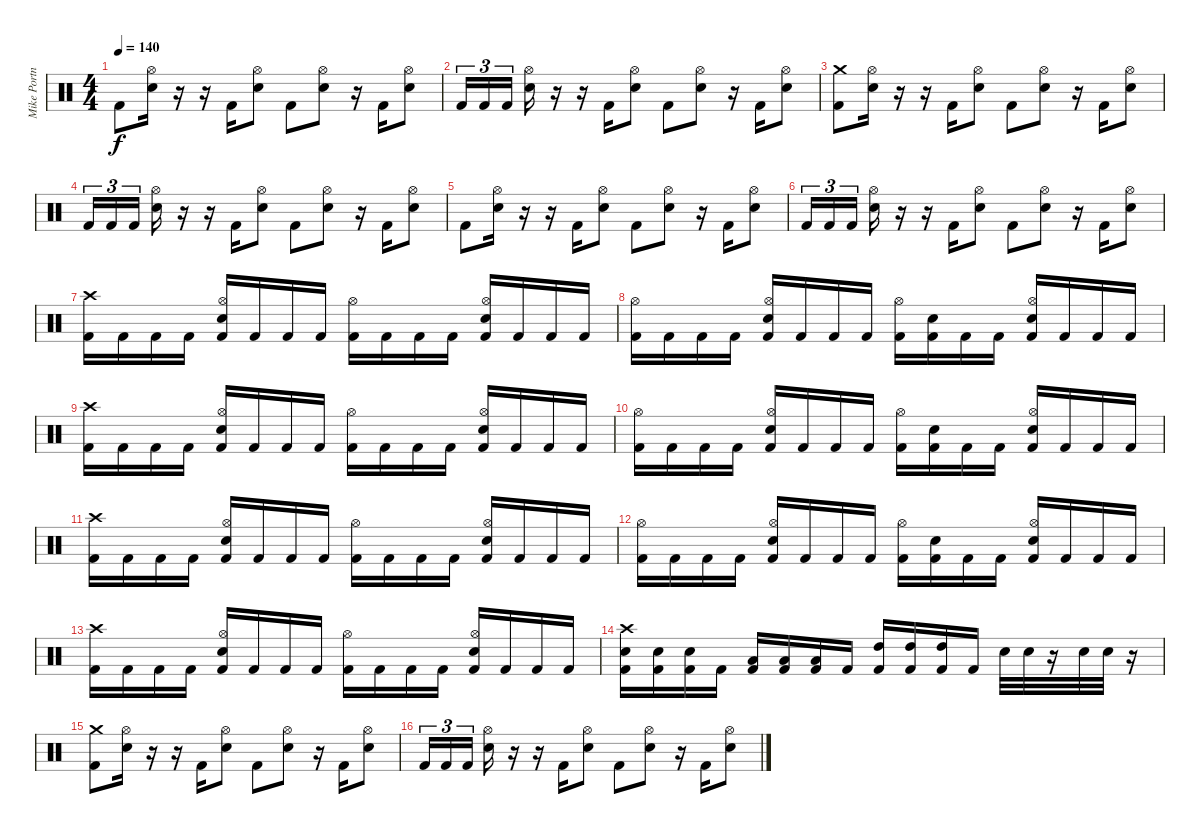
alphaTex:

\track ("Mike Portnoy" "Mike Portn") {instrument percussion}
\staff {score}
\articulation defaults
\ts (4 4)
\tempo 140
\clef neutral
\ks c "Kick (hit) 2".8{dy f}
("Hi-Hat (open)" "Snare (hit) 2").16 r.16 r.16 "Kick (hit) 2".16 ("Hi-Hat (open)" "Snare (hit) 2").8 "Kick (hit) 2".8 ("Hi-Hat (open)" "Snare (hit) 2").8 r.16 "Kick (hit) 2".16 ("Hi-Hat (open)" "Snare (hit) 2").8 |
"Kick (hit) 2".16{tu (3 2)} "Kick (hit) 2".16{tu (3 2)} "Kick (hit) 2".16{tu (3 2)} ("Hi-Hat (open)" "Snare (hit) 2").16 r.16 r.16 "Kick (hit) 2".16 ("Hi-Hat (open)" "Snare (hit) 2").8 "Kick (hit) 2".8 ("Hi-Hat (open)" "Snare (hit) 2").8 r.16 "Kick (hit) 2".16 ("Hi-Hat (open)" "Snare (hit) 2").8 |
("Crash medium (hit)" "Kick (hit) 2").8 ("Hi-Hat (open)" "Snare (hit) 2").16 r.16 r.16 "Kick (hit) 2".16 ("Hi-Hat (open)" "Snare (hit) 2").8 "Kick (hit) 2".8 ("Hi-Hat (open)" "Snare (hit) 2").8 r.16 "Kick (hit) 2".16 ("Hi-Hat (open)" "Snare (hit) 2").8 |
"Kick (hit) 2".16{tu (3 2)} "Kick (hit) 2".16{tu (3 2)} "Kick (hit) 2".16{tu (3 2)} ("Hi-Hat (open)" "Snare (hit) 2").16 r.16 r.16 "Kick (hit) 2".16 ("Hi-Hat (open)" "Snare (hit) 2").8 "Kick (hit) 2".8 ("Hi-Hat (open)" "Snare (hit) 2").8 r.16 "Kick (hit) 2".16 ("Hi-Hat (open)" "Snare (hit) 2").8 |
"Kick (hit) 2".8 ("Hi-Hat (open)" "Snare (hit) 2").16 r.16 r.16 "Kick (hit) 2".16 ("Hi-Hat (open)" "Snare (hit) 2").8 "Kick (hit) 2".8 ("Hi-Hat (open)" "Snare (hit) 2").8 r.16 "Kick (hit) 2".16 ("Hi-Hat (open)" "Snare (hit) 2").8 |
"Kick (hit) 2".16{tu (3 2)} "Kick (hit) 2".16{tu (3 2)} "Kick (hit) 2".16{tu (3 2)} ("Hi-Hat (open)" "Snare (hit) 2").16 r.16 r.16 "Kick (hit) 2".16 ("Hi-Hat (open)" "Snare (hit) 2").8 "Kick (hit) 2".8 ("Hi-Hat (open)" "Snare (hit) 2").8 r.16 "Kick (hit) 2".16 ("Hi-Hat (open)" "Snare (hit) 2").8 |
("Crash high (hit)" "Kick (hit) 2").16 "Kick (hit) 2".16 "Kick (hit) 2".16 "Kick (hit) 2".16 ("Hi-Hat (open)" "Snare (hit) 2" "Kick (hit) 2").16 "Kick (hit) 2".16 "Kick (hit) 2".16 "Kick (hit) 2".16 ("Hi-Hat (open)" "Kick (hit) 2").16 "Kick (hit) 2".16 "Kick (hit) 2".16 "Kick (hit) 2".16 ("Hi-Hat (open)" "Snare (hit) 2" "Kick (hit) 2").16 "Kick (hit) 2".16 "Kick (hit) 2".16 "Kick (hit) 2".16 |
("Hi-Hat (open)" "Kick (hit) 2").16 "Kick (hit) 2".16 "Kick (hit) 2".16 "Kick (hit) 2".16 ("Hi-Hat (open)" "Snare (hit) 2" "Kick (hit) 2").16 "Kick (hit) 2".16 "Kick (hit) 2".16 "Kick (hit) 2".16 ("Hi-Hat (open)" "Kick (hit) 2").16 ("Snare (hit) 2" "Kick (hit) 2").16 "Kick (hit) 2".16 "Kick (hit) 2".16 ("Hi-Hat (open)" "Snare (hit) 2" "Kick (hit) 2").16 "Kick (hit) 2".16 "Kick (hit) 2".16 "Kick (hit) 2".16 |
("Crash high (hit)" "Kick (hit) 2").16 "Kick (hit) 2".16 "Kick (hit) 2".16 "Kick (hit) 2".16 ("Hi-Hat (open)" "Snare (hit) 2" "Kick (hit) 2").16 "Kick (hit) 2".16 "Kick (hit) 2".16 "Kick (hit) 2".16 ("Hi-Hat (open)" "Kick (hit) 2").16 "Kick (hit) 2".16 "Kick (hit) 2".16 "Kick (hit) 2".16 ("Hi-Hat (open)" "Snare (hit) 2" "Kick (hit) 2").16 "Kick (hit) 2".16 "Kick (hit) 2".16 "Kick (hit) 2".16 |
("Hi-Hat (open)" "Kick (hit) 2").16 "Kick (hit) 2".16 "Kick (hit) 2".16 "Kick (hit) 2".16 ("Hi-Hat (open)" "Snare (hit) 2" "Kick (hit) 2").16 "Kick (hit) 2".16 "Kick (hit) 2".16 "Kick (hit) 2".16 ("Hi-Hat (open)" "Kick (hit) 2").16 ("Snare (hit) 2" "Kick (hit) 2").16 "Kick (hit) 2".16 "Kick (hit) 2".16 ("Hi-Hat (open)" "Snare (hit) 2" "Kick (hit) 2").16 "Kick (hit) 2".16 "Kick (hit) 2".16 "Kick (hit) 2".16 |
("Crash high (hit)" "Kick (hit) 2").16 "Kick (hit) 2".16 "Kick (hit) 2".16 "Kick (hit) 2".16 ("Hi-Hat (open)" "Snare (hit) 2" "Kick (hit) 2").16 "Kick (hit) 2".16 "Kick (hit) 2".16 "Kick (hit) 2".16 ("Hi-Hat (open)" "Kick (hit) 2").16 "Kick (hit) 2".16 "Kick (hit) 2".16 "Kick (hit) 2".16 ("Hi-Hat (open)" "Snare (hit) 2" "Kick (hit) 2").16 "Kick (hit) 2".16 "Kick (hit) 2".16 "Kick (hit) 2".16 |
("Hi-Hat (open)" "Kick (hit) 2").16 "Kick (hit) 2".16 "Kick (hit) 2".16 "Kick (hit) 2".16 ("Hi-Hat (open)" "Snare (hit) 2" "Kick (hit) 2").16 "Kick (hit) 2".16 "Kick (hit) 2".16 "Kick (hit) 2".16 ("Hi-Hat (open)" "Kick (hit) 2").16 ("Snare (hit) 2" "Kick (hit) 2").16 "Kick (hit) 2".16 "Kick (hit) 2".16 ("Hi-Hat (open)" "Snare (hit) 2" "Kick (hit) 2").16 "Kick (hit) 2".16 "Kick (hit) 2".16 "Kick (hit) 2".16 |
("Crash high (hit)" "Kick (hit) 2").16 "Kick (hit) 2".16 "Kick (hit) 2".16 "Kick (hit) 2".16 ("Hi-Hat (open)" "Snare (hit) 2" "Kick (hit) 2").16 "Kick (hit) 2".16 "Kick (hit) 2".16 "Kick (hit) 2".16 ("Hi-Hat (open)" "Kick (hit) 2").16 "Kick (hit) 2".16 "Kick (hit) 2".16 "Kick (hit) 2".16 ("Hi-Hat (open)" "Snare (hit) 2" "Kick (hit) 2").16 "Kick (hit) 2".16 "Kick (hit) 2".16 "Kick (hit) 2".16 |
("Crash high (hit)" "Snare (hit) 2" "Kick (hit) 2").16 ("Snare (hit) 2" "Kick (hit) 2").16 ("Snare (hit) 2" "Kick (hit) 2").16 "Kick (hit) 2".16 ("Low Tom (hit)" "Kick (hit) 2").16 ("Low Tom (hit)" "Kick (hit) 2").16 ("Low Tom (hit)" "Kick (hit) 2").16 "Kick (hit) 2".16 ("High Tom (hit)" "Kick (hit) 2").16 ("High Tom (hit)" "Kick (hit) 2").16 ("High Tom (hit)" "Kick (hit) 2").16 "Kick (hit) 2".16 "Snare (hit) 2".32 "Snare (hit) 2".32 r.16 "Snare (hit) 2".32 "Snare (hit) 2".32 r.16 |
("Crash medium (hit)" "Kick (hit) 2").8 ("Hi-Hat (open)" "Snare (hit) 2").16 r.16 r.16 "Kick (hit) 2".16 ("Hi-Hat (open)" "Snare (hit) 2").8 "Kick (hit) 2".8 ("Hi-Hat (open)" "Snare (hit) 2").8 r.16 "Kick (hit) 2".16 ("Hi-Hat (open)" "Snare (hit) 2").8 |
"Kick (hit) 2".16{tu (3 2)} "Kick (hit) 2".16{tu (3 2)} "Kick (hit) 2".16{tu (3 2)} ("Hi-Hat (open)" "Snare (hit) 2").16 r.16 r.16 "Kick (hit) 2".16 ("Hi-Hat (open)" "Snare (hit) 2").8 "Kick (hit) 2".8 ("Hi-Hat (open)" "Snare (hit) 2").8 r.16 "Kick (hit) 2".16 ("Hi-Hat (open)" "Snare (hit) 2").8
